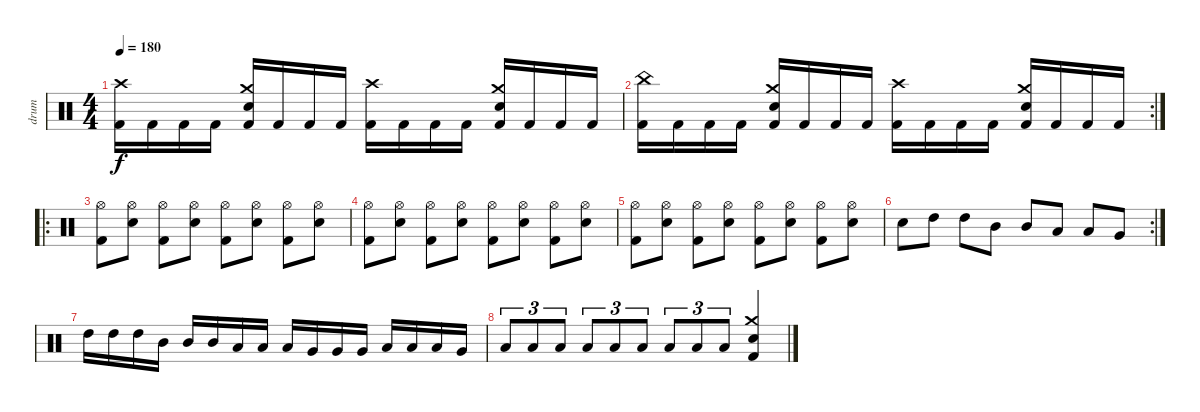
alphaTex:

\track ("drum" "drum") {instrument percussion}
\staff {score}
\articulation defaults
\ts (4 4)
\tempo 180
\clef neutral
\ks c
("Crash high (hit)" "Kick (hit) 2").16{dy f} "Kick (hit) 2".16 "Kick (hit) 2".16 "Kick (hit) 2".16 ("Crash medium (hit)" "Electric Snare (hit)" "Kick (hit) 2").16 "Kick (hit) 2".16 "Kick (hit) 2".16 "Kick (hit) 2".16 ("Crash high (hit)" "Kick (hit) 2").16 "Kick (hit) 2".16 "Kick (hit) 2".16 "Kick (hit) 2".16 ("Crash medium (hit)" "Electric Snare (hit)" "Kick (hit) 2").16 "Kick (hit) 2".16 "Kick (hit) 2".16 "Kick (hit) 2".16 |
\rc 2
("China (hit)" "Kick (hit) 2").16 "Kick (hit) 2".16 "Kick (hit) 2".16 "Kick (hit) 2".16 ("Crash medium (hit)" "Electric Snare (hit)" "Kick (hit) 2").16 "Kick (hit) 2".16 "Kick (hit) 2".16 "Kick (hit) 2".16 ("Crash high (hit)" "Kick (hit) 2").16 "Kick (hit) 2".16 "Kick (hit) 2".16 "Kick (hit) 2".16 ("Crash medium (hit)" "Electric Snare (hit)" "Kick (hit) 2").16 "Kick (hit) 2".16 "Kick (hit) 2".16 "Kick (hit) 2".16 |
\ro
("Hi-Hat (open)" "Kick (hit) 2").8 ("Hi-Hat (open)" "Electric Snare (hit)").8 ("Hi-Hat (open)" "Kick (hit) 2").8 ("Hi-Hat (open)" "Electric Snare (hit)").8 ("Hi-Hat (open)" "Kick (hit) 2").8 ("Hi-Hat (open)" "Electric Snare (hit)").8 ("Hi-Hat (open)" "Kick (hit) 2").8 ("Hi-Hat (open)" "Electric Snare (hit)").8 |
("Hi-Hat (open)" "Kick (hit) 2").8 ("Hi-Hat (open)" "Electric Snare (hit)").8 ("Hi-Hat (open)" "Kick (hit) 2").8 ("Hi-Hat (open)" "Electric Snare (hit)").8 ("Hi-Hat (open)" "Kick (hit) 2").8 ("Hi-Hat (open)" "Electric Snare (hit)").8 ("Hi-Hat (open)" "Kick (hit) 2").8 ("Hi-Hat (open)" "Electric Snare (hit)").8 |
("Hi-Hat (open)" "Kick (hit) 2").8 ("Hi-Hat (open)" "Electric Snare (hit)").8 ("Hi-Hat (open)" "Kick (hit) 2").8 ("Hi-Hat (open)" "Electric Snare (hit)").8 ("Hi-Hat (open)" "Kick (hit) 2").8 ("Hi-Hat (open)" "Electric Snare (hit)").8 ("Hi-Hat (open)" "Kick (hit) 2").8 ("Hi-Hat (open)" "Electric Snare (hit)").8 |
\rc 2 "Electric Snare (hit)".8 "High Tom (hit)".8 "High Tom (hit)".8 "Mid Tom (hit)".8 "Mid Tom (hit)".8 "Low Tom (hit)".8 "Low Tom (hit)".8 "Very Low Tom (hit)".8
|
"High Tom (hit)".16 "High Tom (hit)".16 "High Tom (hit)".16 "Mid Tom (hit)".16 "Mid Tom (hit)".16 "Mid Tom (hit)".16 "Low Tom (hit)".16 "Low Tom (hit)".16 "Low Tom (hit)".16 "Very Low Tom (hit)".16 "Very Low Tom (hit)".16 "Very Low Tom (hit)".16 "Low Tom (hit)".16 "Low Tom (hit)".16 "Low Tom (hit)".16 "Very Low Tom (hit)".16 |
"Low Floor Tom (hit)".8{tu (3 2)} "Low Floor Tom (hit)".8{tu (3 2)} "Low Floor Tom (hit)".8{tu (3 2)} "Low Floor Tom (hit)".8{tu (3 2)} "Low Floor Tom (hit)".8{tu (3 2)} "Low Floor Tom (hit)".8{tu (3 2)} "Low Floor Tom (hit)".8{tu (3 2)} "Low Floor Tom (hit)".8{tu (3 2)} "Low Floor Tom (hit)".8{tu (3 2)} ("Crash medium (hit)" "Electric Snare (hit)" "Kick (hit) 2").4
